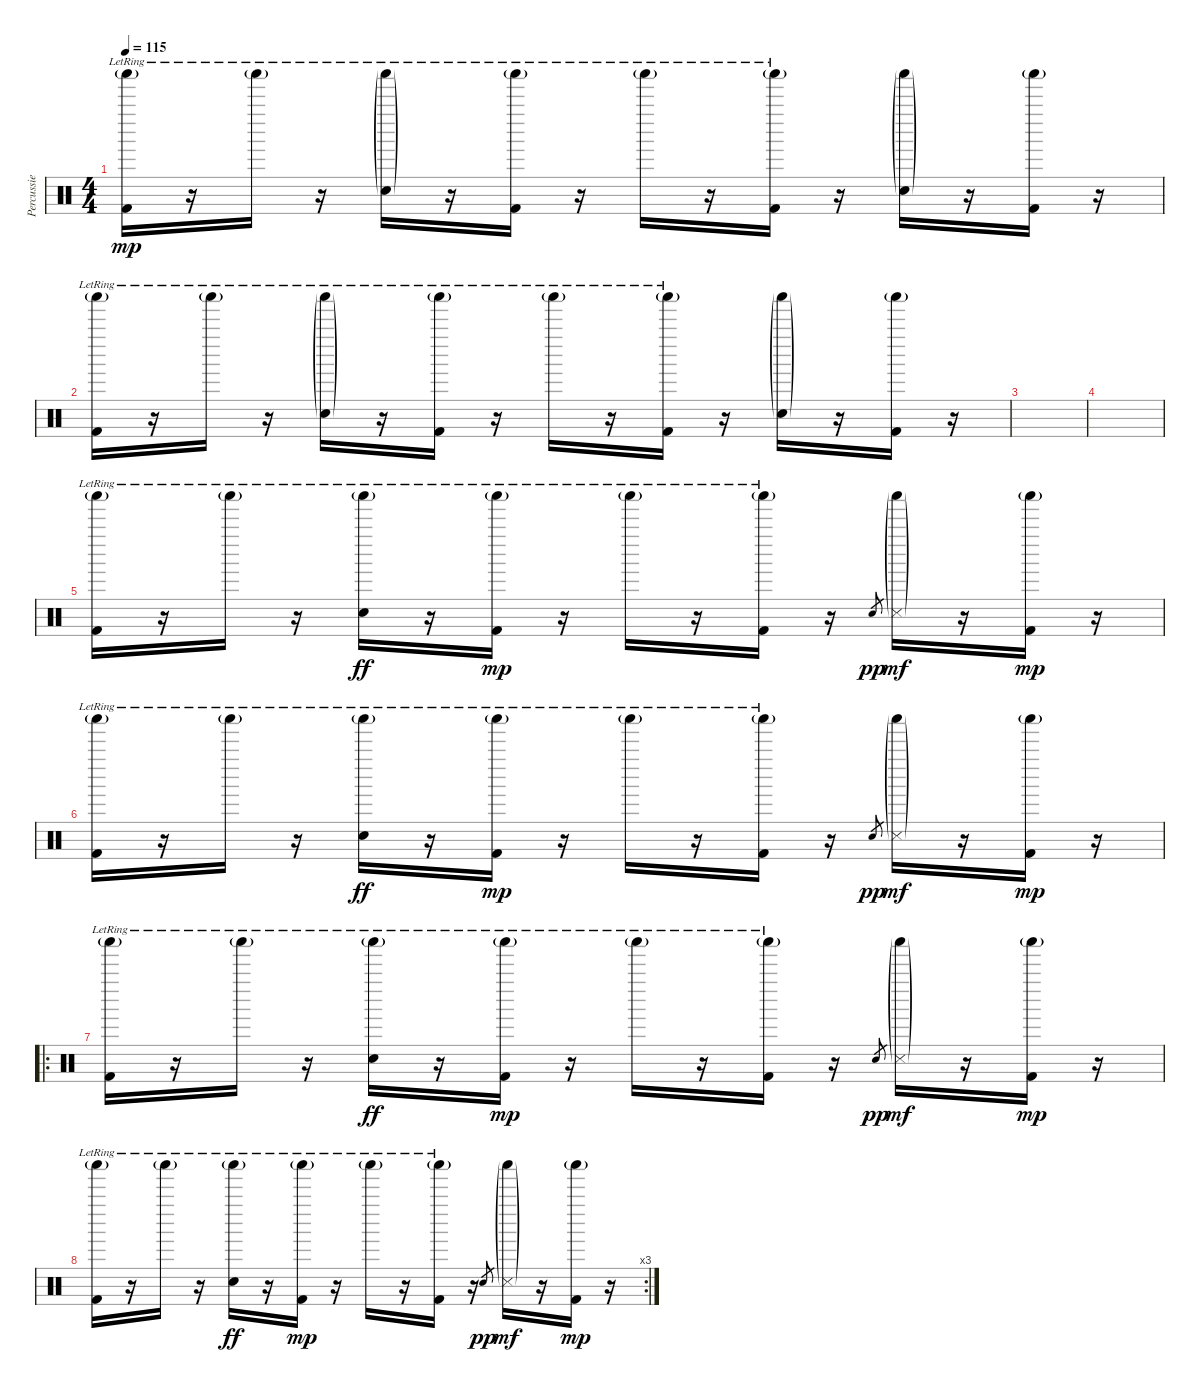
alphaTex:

\track ("Percussie" "Percussie") {instrument percussion}
\staff {score}
\articulation defaults
\ts (4 4)
\tempo 115
\clef neutral
\ks c
("Shaker (hit)"{g lr} "Kick (hit) 2").16{dy mp} r.16 "Shaker (hit)"{g lr}.16 r.16 ("Shaker (hit)"{g lr} "Snare (hit) 2"{g}).16 r.16 ("Shaker (hit)"{g lr} "Kick (hit) 2").16 r.16 "Shaker (hit)"{g lr}.16 r.16 ("Shaker (hit)"{g lr} "Kick (hit) 2").16 r.16 ("Shaker (hit)"{g} "Snare (hit) 2"{g}).16 r.16 ("Shaker (hit)"{g} "Kick (hit) 2").16 r.16 |
("Shaker (hit)"{g lr} "Kick (hit) 2").16 r.16 "Shaker (hit)"{g lr}.16 r.16 ("Shaker (hit)"{g lr} "Snare (hit) 2"{g}).16 r.16 ("Shaker (hit)"{g lr} "Kick (hit) 2").16 r.16 "Shaker (hit)"{g lr}.16 r.16 ("Shaker (hit)"{g lr} "Kick (hit) 2").16 r.16 ("Shaker (hit)"{g} "Snare (hit) 2"{g}).16 r.16 ("Shaker (hit)"{g} "Kick (hit) 2").16 r.16 |
|
|
("Shaker (hit)"{g lr} "Kick (hit) 2").16 r.16 "Shaker (hit)"{g lr}.16 r.16 ("Shaker (hit)"{g lr} "Hand Clap (hit)"{lr}).16{dy ff} r.16 ("Shaker (hit)"{g lr} "Kick (hit) 2").16{dy mp} r.16 "Shaker (hit)"{g lr}.16 r.16 ("Shaker (hit)"{g lr} "Kick (hit) 2").16 r.16 "Snare (hit)".8{gr dy pp} ("Shaker (hit)"{g} "Metronome (hit)"{g}).16{dy mf} r.16 ("Shaker (hit)"{g} "Kick (hit) 2").16{dy mp} r.16 |
("Shaker (hit)"{g lr} "Kick (hit) 2").16 r.16 "Shaker (hit)"{g lr}.16 r.16 ("Shaker (hit)"{g lr} "Hand Clap (hit)"{lr}).16{dy ff} r.16 ("Shaker (hit)"{g lr} "Kick (hit) 2").16{dy mp} r.16 "Shaker (hit)"{g lr}.16 r.16 ("Shaker (hit)"{g lr} "Kick (hit) 2").16 r.16 "Snare (hit)".8{gr dy pp} ("Shaker (hit)"{g} "Metronome (hit)"{g}).16{dy mf} r.16 ("Shaker (hit)"{g} "Kick (hit) 2").16{dy mp} r.16 |
\ro
("Shaker (hit)"{g lr} "Kick (hit) 2").16 r.16 "Shaker (hit)"{g lr}.16 r.16 ("Shaker (hit)"{g lr} "Hand Clap (hit)"{lr}).16{dy ff} r.16 ("Shaker (hit)"{g lr} "Kick (hit) 2").16{dy mp} r.16 "Shaker (hit)"{g lr}.16 r.16 ("Shaker (hit)"{g lr} "Kick (hit) 2").16 r.16 "Snare (hit)".8{gr dy pp} ("Shaker (hit)"{g} "Metronome (hit)"{g}).16{dy mf} r.16 ("Shaker (hit)"{g} "Kick (hit) 2").16{dy mp} r.16 |
\rc 3
("Shaker (hit)"{g lr} "Kick (hit) 2").16 r.16 "Shaker (hit)"{g lr}.16 r.16 ("Shaker (hit)"{g lr} "Hand Clap (hit)"{lr}).16{dy ff} r.16 ("Shaker (hit)"{g lr} "Kick (hit) 2").16{dy mp} r.16 "Shaker (hit)"{g lr}.16 r.16 ("Shaker (hit)"{g lr} "Kick (hit) 2").16 r.16 "Snare (hit)".8{gr dy pp} ("Shaker (hit)"{g} "Metronome (hit)"{g}).16{dy mf} r.16 ("Shaker (hit)"{g} "Kick (hit) 2").16{dy mp} r.16
